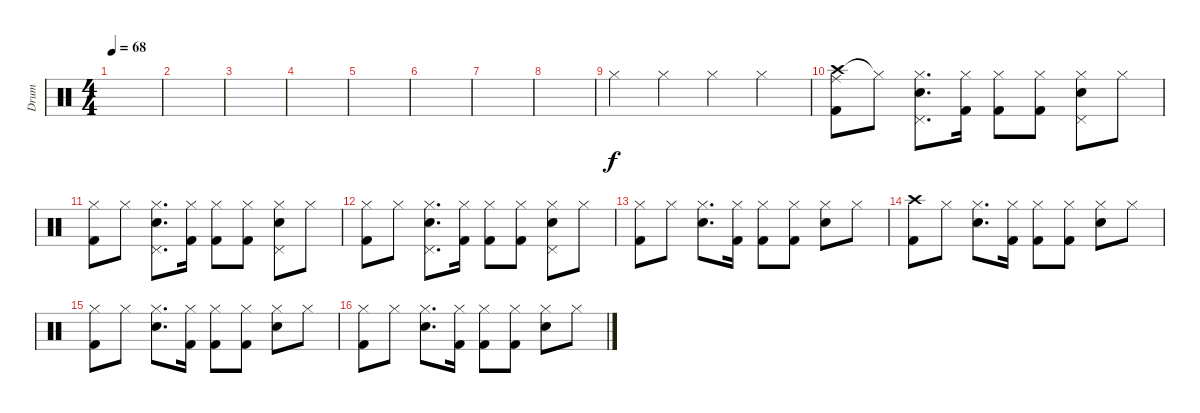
\track ("Drum" "Drum") {instrument percussion}
\staff {score}
\articulation defaults
\ts (4 4)
\tempo 68
\clef neutral
\ks c
|
|
|
|
|
|
|
|
"Hi-Hat (closed)".4 "Hi-Hat (closed)".4 "Hi-Hat (closed)".4 "Hi-Hat (closed)".4 |
("Crash high (hit)" "Ride (middle)" "Kick (hit) 2").8 "Hi-Hat (closed)"{t}.8 ("Hi-Hat (closed)" "Pedal Hi-Hat (hit)" "Electric Snare (hit)").8{d} ("Hi-Hat (closed)" "Kick (hit) 2").16 ("Hi-Hat (closed)" "Kick (hit) 2").8 ("Hi-Hat (closed)" "Kick (hit) 2").8 ("Hi-Hat (closed)" "Pedal Hi-Hat (hit)" "Electric Snare (hit)").8 "Hi-Hat (closed)".8 |
("Hi-Hat (closed)" "Kick (hit) 2").8 "Hi-Hat (closed)".8 ("Hi-Hat (closed)" "Pedal Hi-Hat (hit)" "Electric Snare (hit)").8{d} ("Hi-Hat (closed)" "Kick (hit) 2").16 ("Hi-Hat (closed)" "Kick (hit) 2").8 ("Hi-Hat (closed)" "Kick (hit) 2").8 ("Hi-Hat (closed)" "Pedal Hi-Hat (hit)" "Electric Snare (hit)").8 "Hi-Hat (closed)".8 |
("Hi-Hat (closed)" "Kick (hit) 2").8 "Hi-Hat (closed)".8 ("Hi-Hat (closed)" "Pedal Hi-Hat (hit)" "Electric Snare (hit)").8{d} ("Hi-Hat (closed)" "Kick (hit) 2").16 ("Hi-Hat (closed)" "Kick (hit) 2").8 ("Hi-Hat (closed)" "Kick (hit) 2").8 ("Hi-Hat (closed)" "Pedal Hi-Hat (hit)" "Electric Snare (hit)").8 "Hi-Hat (closed)".8 |
("Hi-Hat (closed)" "Kick (hit) 2").8 "Hi-Hat (closed)".8 ("Hi-Hat (closed)" "Electric Snare (hit)").8{d} ("Hi-Hat (closed)" "Kick (hit) 2").16 ("Hi-Hat (closed)" "Kick (hit) 2").8 ("Hi-Hat (closed)" "Kick (hit) 2").8 ("Hi-Hat (closed)" "Electric Snare (hit)").8 "Hi-Hat (closed)".8 |
("Crash high (hit)" "Kick (hit) 2").8 "Hi-Hat (closed)".8 ("Hi-Hat (closed)" "Electric Snare (hit)").8{d} ("Hi-Hat (closed)" "Kick (hit) 2").16 ("Hi-Hat (closed)" "Kick (hit) 2").8 ("Hi-Hat (closed)" "Kick (hit) 2").8 ("Hi-Hat (closed)" "Electric Snare (hit)").8 "Hi-Hat (closed)".8 |
("Hi-Hat (closed)" "Kick (hit) 2").8 "Hi-Hat (closed)".8 ("Hi-Hat (closed)" "Electric Snare (hit)").8{d} ("Hi-Hat (closed)" "Kick (hit) 2").16 ("Hi-Hat (closed)" "Kick (hit) 2").8 ("Hi-Hat (closed)" "Kick (hit) 2").8 ("Hi-Hat (closed)" "Electric Snare (hit)").8 "Hi-Hat (closed)".8 |
("Hi-Hat (closed)" "Kick (hit) 2").8 "Hi-Hat (closed)".8 ("Hi-Hat (closed)" "Electric Snare (hit)").8{d} ("Hi-Hat (closed)" "Kick (hit) 2").16 ("Hi-Hat (closed)" "Kick (hit) 2").8 ("Hi-Hat (closed)" "Kick (hit) 2").8 ("Hi-Hat (closed)" "Electric Snare (hit)").8 "Hi-Hat (closed)".8
